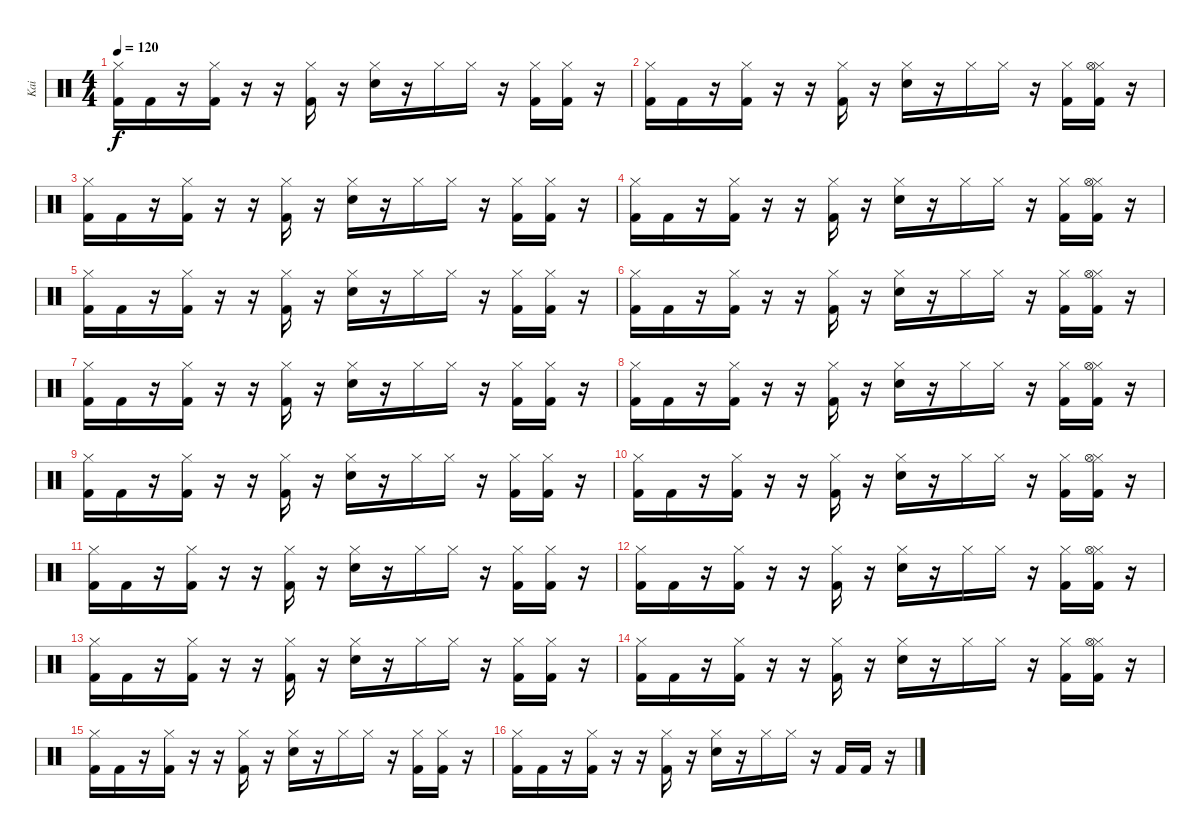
\track ("Kai" "Kai") {instrument percussion}
\staff {score}
\articulation defaults
\ts (4 4)
\tempo 120
\clef neutral
\ks c
("Hi-Hat (closed)" "Kick (hit) 2").16{dy f} "Kick (hit) 2".16 r.16 ("Hi-Hat (closed)" "Kick (hit) 2").16 r.16 r.16 ("Hi-Hat (closed)" "Kick (hit) 2").16 r.16 ("Hi-Hat (closed)" "Electric Snare (hit)").16 r.16 "Hi-Hat (closed)".16 "Hi-Hat (closed)".16 r.16 ("Hi-Hat (closed)" "Kick (hit) 2").16 ("Hi-Hat (closed)" "Kick (hit) 2").16 r.16 |
("Hi-Hat (closed)" "Kick (hit) 2").16 "Kick (hit) 2".16 r.16 ("Hi-Hat (closed)" "Kick (hit) 2").16 r.16 r.16 ("Hi-Hat (closed)" "Kick (hit) 2").16 r.16 ("Hi-Hat (closed)" "Electric Snare (hit)").16 r.16 "Hi-Hat (closed)".16 "Hi-Hat (closed)".16 r.16 ("Hi-Hat (closed)" "Kick (hit) 2").16 ("Hi-Hat (closed)" "Hi-Hat (open)" "Kick (hit) 2").16 r.16 |
("Hi-Hat (closed)" "Kick (hit) 2").16 "Kick (hit) 2".16 r.16 ("Hi-Hat (closed)" "Kick (hit) 2").16 r.16 r.16 ("Hi-Hat (closed)" "Kick (hit) 2").16 r.16 ("Hi-Hat (closed)" "Electric Snare (hit)").16 r.16 "Hi-Hat (closed)".16 "Hi-Hat (closed)".16 r.16 ("Hi-Hat (closed)" "Kick (hit) 2").16 ("Hi-Hat (closed)" "Kick (hit) 2").16 r.16 |
("Hi-Hat (closed)" "Kick (hit) 2").16 "Kick (hit) 2".16 r.16 ("Hi-Hat (closed)" "Kick (hit) 2").16 r.16 r.16 ("Hi-Hat (closed)" "Kick (hit) 2").16 r.16 ("Hi-Hat (closed)" "Electric Snare (hit)").16 r.16 "Hi-Hat (closed)".16 "Hi-Hat (closed)".16 r.16 ("Hi-Hat (closed)" "Kick (hit) 2").16 ("Hi-Hat (closed)" "Hi-Hat (open)" "Kick (hit) 2").16 r.16 |
("Hi-Hat (closed)" "Kick (hit) 2").16 "Kick (hit) 2".16 r.16 ("Hi-Hat (closed)" "Kick (hit) 2").16 r.16 r.16 ("Hi-Hat (closed)" "Kick (hit) 2").16 r.16 ("Hi-Hat (closed)" "Electric Snare (hit)").16 r.16 "Hi-Hat (closed)".16 "Hi-Hat (closed)".16 r.16 ("Hi-Hat (closed)" "Kick (hit) 2").16 ("Hi-Hat (closed)" "Kick (hit) 2").16 r.16 |
("Hi-Hat (closed)" "Kick (hit) 2").16 "Kick (hit) 2".16 r.16 ("Hi-Hat (closed)" "Kick (hit) 2").16 r.16 r.16 ("Hi-Hat (closed)" "Kick (hit) 2").16 r.16 ("Hi-Hat (closed)" "Electric Snare (hit)").16 r.16 "Hi-Hat (closed)".16 "Hi-Hat (closed)".16 r.16 ("Hi-Hat (closed)" "Kick (hit) 2").16 ("Hi-Hat (closed)" "Hi-Hat (open)" "Kick (hit) 2").16 r.16 |
("Hi-Hat (closed)" "Kick (hit) 2").16 "Kick (hit) 2".16 r.16 ("Hi-Hat (closed)" "Kick (hit) 2").16 r.16 r.16 ("Hi-Hat (closed)" "Kick (hit) 2").16 r.16 ("Hi-Hat (closed)" "Electric Snare (hit)").16 r.16 "Hi-Hat (closed)".16 "Hi-Hat (closed)".16 r.16 ("Hi-Hat (closed)" "Kick (hit) 2").16 ("Hi-Hat (closed)" "Kick (hit) 2").16 r.16 |
("Hi-Hat (closed)" "Kick (hit) 2").16 "Kick (hit) 2".16 r.16 ("Hi-Hat (closed)" "Kick (hit) 2").16 r.16 r.16 ("Hi-Hat (closed)" "Kick (hit) 2").16 r.16 ("Hi-Hat (closed)" "Electric Snare (hit)").16 r.16 "Hi-Hat (closed)".16 "Hi-Hat (closed)".16 r.16 ("Hi-Hat (closed)" "Kick (hit) 2").16 ("Hi-Hat (closed)" "Hi-Hat (open)" "Kick (hit) 2").16 r.16 |
("Hi-Hat (closed)" "Kick (hit) 2").16 "Kick (hit) 2".16 r.16 ("Hi-Hat (closed)" "Kick (hit) 2").16 r.16 r.16 ("Hi-Hat (closed)" "Kick (hit) 2").16 r.16 ("Hi-Hat (closed)" "Electric Snare (hit)").16 r.16 "Hi-Hat (closed)".16 "Hi-Hat (closed)".16 r.16 ("Hi-Hat (closed)" "Kick (hit) 2").16 ("Hi-Hat (closed)" "Kick (hit) 2").16 r.16 |
("Hi-Hat (closed)" "Kick (hit) 2").16 "Kick (hit) 2".16 r.16 ("Hi-Hat (closed)" "Kick (hit) 2").16 r.16 r.16 ("Hi-Hat (closed)" "Kick (hit) 2").16 r.16 ("Hi-Hat (closed)" "Electric Snare (hit)").16 r.16 "Hi-Hat (closed)".16 "Hi-Hat (closed)".16 r.16 ("Hi-Hat (closed)" "Kick (hit) 2").16 ("Hi-Hat (closed)" "Hi-Hat (open)" "Kick (hit) 2").16 r.16 |
("Hi-Hat (closed)" "Kick (hit) 2").16 "Kick (hit) 2".16 r.16 ("Hi-Hat (closed)" "Kick (hit) 2").16 r.16 r.16 ("Hi-Hat (closed)" "Kick (hit) 2").16 r.16 ("Hi-Hat (closed)" "Electric Snare (hit)").16 r.16 "Hi-Hat (closed)".16 "Hi-Hat (closed)".16 r.16 ("Hi-Hat (closed)" "Kick (hit) 2").16 ("Hi-Hat (closed)" "Kick (hit) 2").16 r.16 |
("Hi-Hat (closed)" "Kick (hit) 2").16 "Kick (hit) 2".16 r.16 ("Hi-Hat (closed)" "Kick (hit) 2").16 r.16 r.16 ("Hi-Hat (closed)" "Kick (hit) 2").16 r.16 ("Hi-Hat (closed)" "Electric Snare (hit)").16 r.16 "Hi-Hat (closed)".16 "Hi-Hat (closed)".16 r.16 ("Hi-Hat (closed)" "Kick (hit) 2").16 ("Hi-Hat (closed)" "Hi-Hat (open)" "Kick (hit) 2").16 r.16 |
("Hi-Hat (closed)" "Kick (hit) 2").16 "Kick (hit) 2".16 r.16 ("Hi-Hat (closed)" "Kick (hit) 2").16 r.16 r.16 ("Hi-Hat (closed)" "Kick (hit) 2").16 r.16 ("Hi-Hat (closed)" "Electric Snare (hit)").16 r.16 "Hi-Hat (closed)".16 "Hi-Hat (closed)".16 r.16 ("Hi-Hat (closed)" "Kick (hit) 2").16 ("Hi-Hat (closed)" "Kick (hit) 2").16 r.16 |
("Hi-Hat (closed)" "Kick (hit) 2").16 "Kick (hit) 2".16 r.16 ("Hi-Hat (closed)" "Kick (hit) 2").16 r.16 r.16 ("Hi-Hat (closed)" "Kick (hit) 2").16 r.16 ("Hi-Hat (closed)" "Electric Snare (hit)").16 r.16 "Hi-Hat (closed)".16 "Hi-Hat (closed)".16 r.16 ("Hi-Hat (closed)" "Kick (hit) 2").16 ("Hi-Hat (closed)" "Hi-Hat (open)" "Kick (hit) 2").16 r.16 |
("Hi-Hat (closed)" "Kick (hit) 2").16 "Kick (hit) 2".16 r.16 ("Hi-Hat (closed)" "Kick (hit) 2").16 r.16 r.16 ("Hi-Hat (closed)" "Kick (hit) 2").16 r.16 ("Hi-Hat (closed)" "Electric Snare (hit)").16 r.16 "Hi-Hat (closed)".16 "Hi-Hat (closed)".16 r.16 ("Hi-Hat (closed)" "Kick (hit) 2").16 ("Hi-Hat (closed)" "Kick (hit) 2").16 r.16 |
("Hi-Hat (closed)" "Kick (hit) 2").16 "Kick (hit) 2".16 r.16 ("Hi-Hat (closed)" "Kick (hit) 2").16 r.16 r.16 ("Hi-Hat (closed)" "Kick (hit) 2").16 r.16 ("Hi-Hat (closed)" "Electric Snare (hit)").16 r.16 "Hi-Hat (closed)".16 "Hi-Hat (closed)".16 r.16 "Kick (hit) 2".16 "Kick (hit) 2".16 r.16
